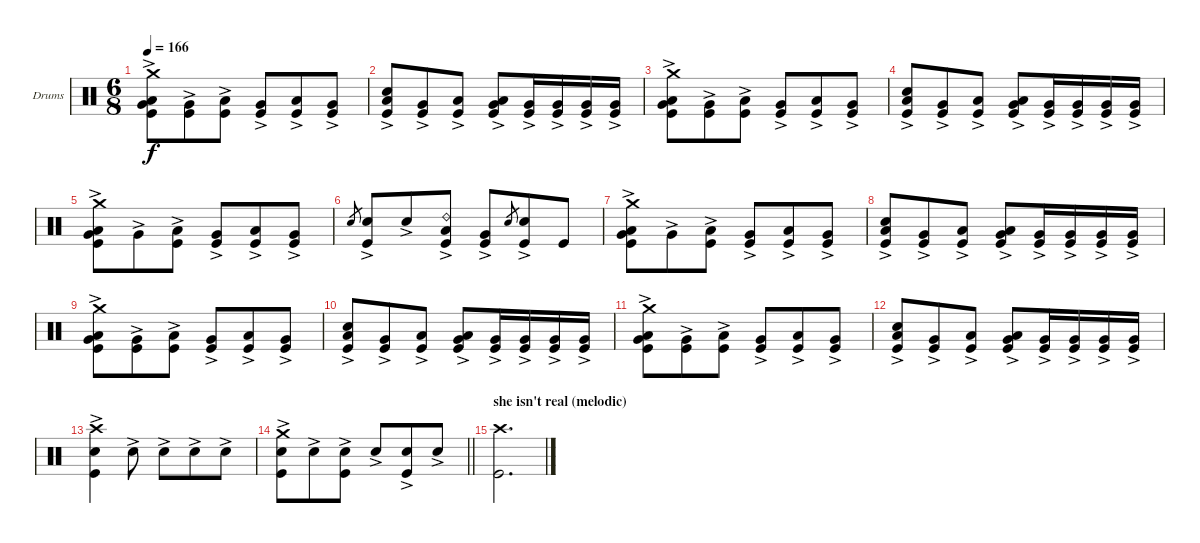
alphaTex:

\bracketExtendMode groupsimilarinstruments
\firstSystemTrackNameOrientation horizontal
\otherSystemsTrackNameOrientation horizontal
\track ("Drumkit" "Drums") {instrument percussion}
\staff {score}
\articulation defaults
\ts (6 8)
\tempo 166
\clef neutral
\ks c
("Crash medium (hit)" "Low Tom (hit)"{ac} "Kick (hit)" "Very Low Tom (hit)"{ac}).8{dy f} ("Very Low Tom (hit)"{ac} "Kick (hit)").8 ("Low Tom (hit)"{ac} "Kick (hit)").8 ("Very Low Tom (hit)"{ac} "Kick (hit)").8 ("Kick (hit)" "Low Tom (hit)"{ac}).8 ("Very Low Tom (hit)"{ac} "Kick (hit)").8 |
("Snare (hit) 2"{ac} "Kick (hit)" "Low Tom (hit)"{ac}).8 ("Very Low Tom (hit)"{ac} "Kick (hit)").8 ("Low Tom (hit)"{ac} "Kick (hit)").8 ("Low Tom (hit)"{ac} "Very Low Tom (hit)"{ac} "Kick (hit)").8 ("Very Low Tom (hit)"{ac} "Kick (hit)").16 ("Very Low Tom (hit)"{ac} "Kick (hit)").16 ("Very Low Tom (hit)"{ac} "Kick (hit)").16 ("Very Low Tom (hit)"{ac} "Kick (hit)").16 |
("Crash medium (hit)" "Low Tom (hit)"{ac} "Kick (hit)" "Very Low Tom (hit)"{ac}).8 ("Very Low Tom (hit)"{ac} "Kick (hit)").8 ("Low Tom (hit)"{ac} "Kick (hit)").8 ("Very Low Tom (hit)"{ac} "Kick (hit)").8 ("Kick (hit)" "Low Tom (hit)"{ac}).8 ("Very Low Tom (hit)"{ac} "Kick (hit)").8 |
("Snare (hit) 2"{ac} "Kick (hit)" "Low Tom (hit)"{ac}).8 ("Very Low Tom (hit)"{ac} "Kick (hit)").8 ("Low Tom (hit)"{ac} "Kick (hit)").8 ("Low Tom (hit)"{ac} "Very Low Tom (hit)"{ac} "Kick (hit)").8 ("Very Low Tom (hit)"{ac} "Kick (hit)").16 ("Very Low Tom (hit)"{ac} "Kick (hit)").16 ("Very Low Tom (hit)"{ac} "Kick (hit)").16 ("Very Low Tom (hit)"{ac} "Kick (hit)").16 |
("Crash medium (hit)" "Low Tom (hit)"{ac} "Kick (hit)" "Very Low Tom (hit)"{ac}).8 "Very Low Tom (hit)"{ac}.8 ("Low Tom (hit)"{ac} "Kick (hit)").8 ("Very Low Tom (hit)"{ac} "Kick (hit)").8 ("Kick (hit)" "Low Tom (hit)"{ac}).8 ("Very Low Tom (hit)"{ac} "Kick (hit)").8 |
"Snare (hit) 2".8{gr} ("Snare (hit) 2"{ac} "Kick (hit)").8 "Snare (hit) 2"{ac}.8 ("Ride (bell) 2" "Low Tom (hit)"{ac} "Kick (hit)").8 ("Very Low Tom (hit)"{ac} "Kick (hit)").8 "Snare (hit) 2".8{gr} ("Snare (hit) 2"{ac} "Kick (hit)").8 "Kick (hit)".8 |
("Crash medium (hit)" "Low Tom (hit)"{ac} "Kick (hit)" "Very Low Tom (hit)"{ac}).8 "Very Low Tom (hit)"{ac}.8 ("Low Tom (hit)"{ac} "Kick (hit)").8 ("Very Low Tom (hit)"{ac} "Kick (hit)").8 ("Kick (hit)" "Low Tom (hit)"{ac}).8 ("Very Low Tom (hit)"{ac} "Kick (hit)").8 |
("Snare (hit) 2"{ac} "Kick (hit)" "Low Tom (hit)"{ac}).8 ("Very Low Tom (hit)"{ac} "Kick (hit)").8 ("Low Tom (hit)"{ac} "Kick (hit)").8 ("Low Tom (hit)"{ac} "Very Low Tom (hit)"{ac} "Kick (hit)").8 ("Very Low Tom (hit)"{ac} "Kick (hit)").16 ("Very Low Tom (hit)"{ac} "Kick (hit)").16 ("Very Low Tom (hit)"{ac} "Kick (hit)").16 ("Very Low Tom (hit)"{ac} "Kick (hit)").16 |
("Crash medium (hit)" "Low Tom (hit)"{ac} "Kick (hit)" "Very Low Tom (hit)"{ac}).8 ("Very Low Tom (hit)"{ac} "Kick (hit)").8 ("Low Tom (hit)"{ac} "Kick (hit)").8 ("Very Low Tom (hit)"{ac} "Kick (hit)").8 ("Kick (hit)" "Low Tom (hit)"{ac}).8 ("Very Low Tom (hit)"{ac} "Kick (hit)").8 |
("Snare (hit) 2"{ac} "Kick (hit)" "Low Tom (hit)"{ac}).8 ("Very Low Tom (hit)"{ac} "Kick (hit)").8 ("Low Tom (hit)"{ac} "Kick (hit)").8 ("Low Tom (hit)"{ac} "Very Low Tom (hit)"{ac} "Kick (hit)").8 ("Very Low Tom (hit)"{ac} "Kick (hit)").16 ("Very Low Tom (hit)"{ac} "Kick (hit)").16 ("Very Low Tom (hit)"{ac} "Kick (hit)").16 ("Very Low Tom (hit)"{ac} "Kick (hit)").16 |
("Crash medium (hit)" "Low Tom (hit)"{ac} "Kick (hit)" "Very Low Tom (hit)"{ac}).8 ("Very Low Tom (hit)"{ac} "Kick (hit)").8 ("Low Tom (hit)"{ac} "Kick (hit)").8 ("Very Low Tom (hit)"{ac} "Kick (hit)").8 ("Kick (hit)" "Low Tom (hit)"{ac}).8 ("Very Low Tom (hit)"{ac} "Kick (hit)").8 |
("Snare (hit) 2"{ac} "Kick (hit)" "Low Tom (hit)"{ac}).8 ("Very Low Tom (hit)"{ac} "Kick (hit)").8 ("Low Tom (hit)"{ac} "Kick (hit)").8 ("Low Tom (hit)"{ac} "Very Low Tom (hit)"{ac} "Kick (hit)").8 ("Very Low Tom (hit)"{ac} "Kick (hit)").16 ("Very Low Tom (hit)"{ac} "Kick (hit)").16 ("Very Low Tom (hit)"{ac} "Kick (hit)").16 ("Very Low Tom (hit)"{ac} "Kick (hit)").16 |
("Crash high (hit)" "Snare (hit) 2"{ac} "Kick (hit)").4 "Snare (hit) 2"{ac}.8 "Snare (hit) 2"{ac}.8 "Snare (hit) 2"{ac}.8 "Snare (hit) 2"{ac}.8 |
\barLineRight lightlight
("Crash medium (hit)" "Snare (hit) 2"{ac} "Kick (hit)").8 "Snare (hit) 2"{ac}.8 ("Snare (hit) 2"{ac} "Kick (hit)").8 "Snare (hit) 2"{ac}.8 ("Snare (hit) 2"{ac} "Kick (hit)").8 "Snare (hit) 2"{ac}.8 |
\section ("" "she isn't real (melodic)")
("Crash high (hit)" "Kick (hit)").2{d}
